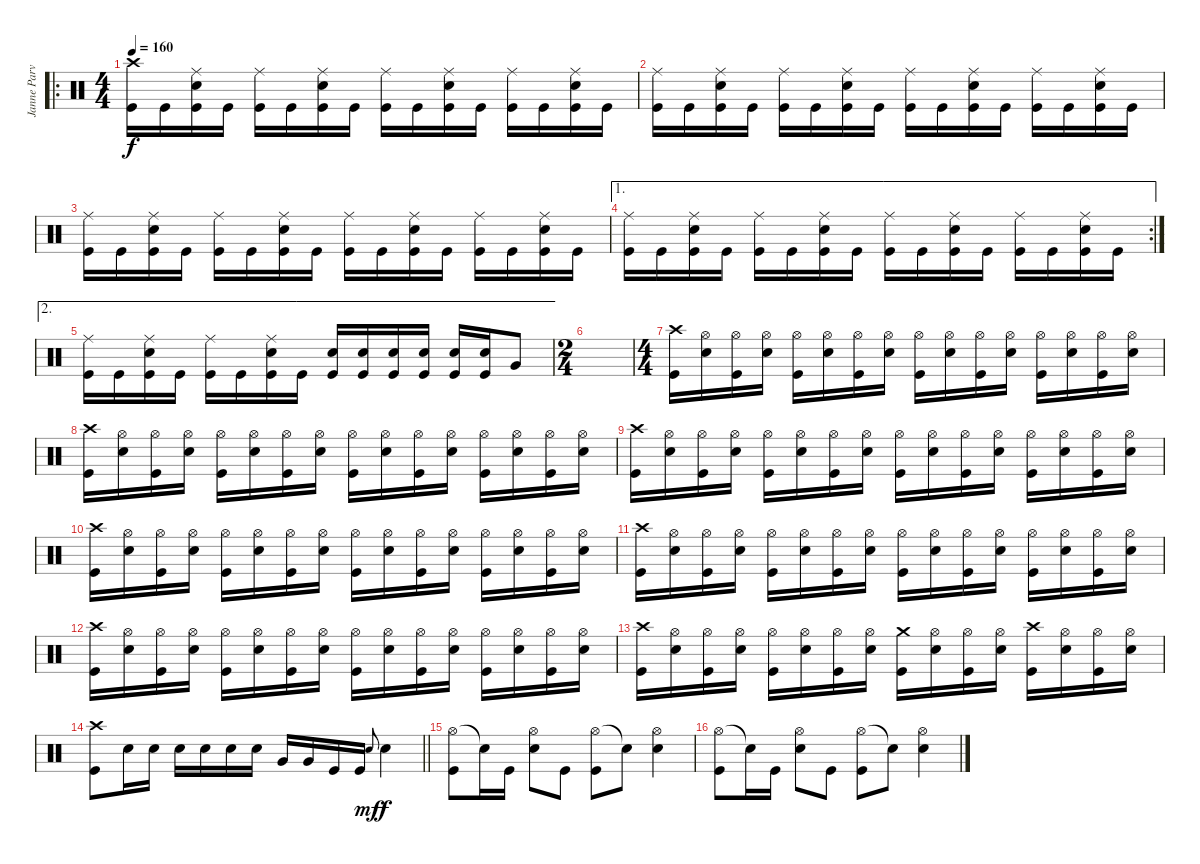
\track ("Janne Parviainen" "Janne Parv") {instrument percussion}
\staff {score}
\articulation defaults
\ro
\ts (4 4)
\tempo 160
\clef neutral
\ks c
("Crash high (hit)" "Kick (hit)").16{dy f} "Kick (hit)".16 ("Ride (middle)" "Electric Snare (hit)" "Kick (hit)").16 "Kick (hit)".16 ("Ride (middle)" "Kick (hit)").16 "Kick (hit)".16 ("Ride (middle)" "Electric Snare (hit)" "Kick (hit)").16 "Kick (hit)".16 ("Ride (middle)" "Kick (hit)").16 "Kick (hit)".16 ("Ride (middle)" "Electric Snare (hit)" "Kick (hit)").16 "Kick (hit)".16 ("Ride (middle)" "Kick (hit)").16 "Kick (hit)".16 ("Ride (middle)" "Electric Snare (hit)" "Kick (hit)").16 "Kick (hit)".16 |
("Ride (middle)" "Kick (hit)").16 "Kick (hit)".16 ("Ride (middle)" "Electric Snare (hit)" "Kick (hit)").16 "Kick (hit)".16 ("Ride (middle)" "Kick (hit)").16 "Kick (hit)".16 ("Ride (middle)" "Electric Snare (hit)" "Kick (hit)").16 "Kick (hit)".16 ("Ride (middle)" "Kick (hit)").16 "Kick (hit)".16 ("Ride (middle)" "Electric Snare (hit)" "Kick (hit)").16 "Kick (hit)".16 ("Ride (middle)" "Kick (hit)").16 "Kick (hit)".16 ("Ride (middle)" "Electric Snare (hit)" "Kick (hit)").16 "Kick (hit)".16 |
("Ride (middle)" "Kick (hit)").16 "Kick (hit)".16 ("Ride (middle)" "Electric Snare (hit)" "Kick (hit)").16 "Kick (hit)".16 ("Ride (middle)" "Kick (hit)").16 "Kick (hit)".16 ("Ride (middle)" "Electric Snare (hit)" "Kick (hit)").16 "Kick (hit)".16 ("Ride (middle)" "Kick (hit)").16 "Kick (hit)".16 ("Ride (middle)" "Electric Snare (hit)" "Kick (hit)").16 "Kick (hit)".16 ("Ride (middle)" "Kick (hit)").16 "Kick (hit)".16 ("Ride (middle)" "Electric Snare (hit)" "Kick (hit)").16 "Kick (hit)".16 |
\ae 1
\rc 2
("Ride (middle)" "Kick (hit)").16 "Kick (hit)".16 ("Ride (middle)" "Electric Snare (hit)" "Kick (hit)").16 "Kick (hit)".16 ("Ride (middle)" "Kick (hit)").16 "Kick (hit)".16 ("Ride (middle)" "Electric Snare (hit)" "Kick (hit)").16 "Kick (hit)".16 ("Ride (middle)" "Kick (hit)").16 "Kick (hit)".16 ("Ride (middle)" "Electric Snare (hit)" "Kick (hit)").16 "Kick (hit)".16 ("Ride (middle)" "Kick (hit)").16 "Kick (hit)".16 ("Ride (middle)" "Electric Snare (hit)" "Kick (hit)").16 "Kick (hit)".16 |
\ae 2
("Ride (middle)" "Kick (hit)").16 "Kick (hit)".16 ("Ride (middle)" "Electric Snare (hit)" "Kick (hit)").16 "Kick (hit)".16 ("Ride (middle)" "Kick (hit)").16 "Kick (hit)".16 ("Ride (middle)" "Electric Snare (hit)" "Kick (hit)").16 "Kick (hit)".16 ("Electric Snare (hit)" "Kick (hit)").16 ("Electric Snare (hit)" "Kick (hit)").16 ("Electric Snare (hit)" "Kick (hit)").16 ("Electric Snare (hit)" "Kick (hit)").16 ("Electric Snare (hit)" "Kick (hit)").16 ("Electric Snare (hit)" "Kick (hit)").16 "Very Low Tom (hit)".8 |
\ts (2 4)
|
\ts (4 4)
("Crash high (hit)" "Kick (hit)").16 ("Hi-Hat (open)" "Electric Snare (hit)").16 ("Hi-Hat (open)" "Kick (hit)").16 ("Hi-Hat (open)" "Electric Snare (hit)").16 ("Hi-Hat (open)" "Kick (hit)").16 ("Hi-Hat (open)" "Electric Snare (hit)").16 ("Hi-Hat (open)" "Kick (hit)").16 ("Hi-Hat (open)" "Electric Snare (hit)").16 ("Hi-Hat (open)" "Kick (hit)").16 ("Hi-Hat (open)" "Electric Snare (hit)").16 ("Hi-Hat (open)" "Kick (hit)").16 ("Hi-Hat (open)" "Electric Snare (hit)").16 ("Hi-Hat (open)" "Kick (hit)").16 ("Hi-Hat (open)" "Electric Snare (hit)").16 ("Hi-Hat (open)" "Kick (hit)").16 ("Hi-Hat (open)" "Electric Snare (hit)").16 |
("Crash high (hit)" "Kick (hit)").16 ("Hi-Hat (open)" "Electric Snare (hit)").16 ("Hi-Hat (open)" "Kick (hit)").16 ("Hi-Hat (open)" "Electric Snare (hit)").16 ("Hi-Hat (open)" "Kick (hit)").16 ("Hi-Hat (open)" "Electric Snare (hit)").16 ("Hi-Hat (open)" "Kick (hit)").16 ("Hi-Hat (open)" "Electric Snare (hit)").16 ("Hi-Hat (open)" "Kick (hit)").16 ("Hi-Hat (open)" "Electric Snare (hit)").16 ("Hi-Hat (open)" "Kick (hit)").16 ("Hi-Hat (open)" "Electric Snare (hit)").16 ("Hi-Hat (open)" "Kick (hit)").16 ("Hi-Hat (open)" "Electric Snare (hit)").16 ("Hi-Hat (open)" "Kick (hit)").16 ("Hi-Hat (open)" "Electric Snare (hit)").16 |
("Crash high (hit)" "Kick (hit)").16 ("Hi-Hat (open)" "Electric Snare (hit)").16 ("Hi-Hat (open)" "Kick (hit)").16 ("Hi-Hat (open)" "Electric Snare (hit)").16 ("Hi-Hat (open)" "Kick (hit)").16 ("Hi-Hat (open)" "Electric Snare (hit)").16 ("Hi-Hat (open)" "Kick (hit)").16 ("Hi-Hat (open)" "Electric Snare (hit)").16 ("Hi-Hat (open)" "Kick (hit)").16 ("Hi-Hat (open)" "Electric Snare (hit)").16 ("Hi-Hat (open)" "Kick (hit)").16 ("Hi-Hat (open)" "Electric Snare (hit)").16 ("Hi-Hat (open)" "Kick (hit)").16 ("Hi-Hat (open)" "Electric Snare (hit)").16 ("Hi-Hat (open)" "Kick (hit)").16 ("Hi-Hat (open)" "Electric Snare (hit)").16 |
("Crash high (hit)" "Kick (hit)").16 ("Hi-Hat (open)" "Electric Snare (hit)").16 ("Hi-Hat (open)" "Kick (hit)").16 ("Hi-Hat (open)" "Electric Snare (hit)").16 ("Hi-Hat (open)" "Kick (hit)").16 ("Hi-Hat (open)" "Electric Snare (hit)").16 ("Hi-Hat (open)" "Kick (hit)").16 ("Hi-Hat (open)" "Electric Snare (hit)").16 ("Hi-Hat (open)" "Kick (hit)").16 ("Hi-Hat (open)" "Electric Snare (hit)").16 ("Hi-Hat (open)" "Kick (hit)").16 ("Hi-Hat (open)" "Electric Snare (hit)").16 ("Hi-Hat (open)" "Kick (hit)").16 ("Hi-Hat (open)" "Electric Snare (hit)").16 ("Hi-Hat (open)" "Kick (hit)").16 ("Hi-Hat (open)" "Electric Snare (hit)").16 |
("Crash high (hit)" "Kick (hit)").16 ("Hi-Hat (open)" "Electric Snare (hit)").16 ("Hi-Hat (open)" "Kick (hit)").16 ("Hi-Hat (open)" "Electric Snare (hit)").16 ("Hi-Hat (open)" "Kick (hit)").16 ("Hi-Hat (open)" "Electric Snare (hit)").16 ("Hi-Hat (open)" "Kick (hit)").16 ("Hi-Hat (open)" "Electric Snare (hit)").16 ("Hi-Hat (open)" "Kick (hit)").16 ("Hi-Hat (open)" "Electric Snare (hit)").16 ("Hi-Hat (open)" "Kick (hit)").16 ("Hi-Hat (open)" "Electric Snare (hit)").16 ("Hi-Hat (open)" "Kick (hit)").16 ("Hi-Hat (open)" "Electric Snare (hit)").16 ("Hi-Hat (open)" "Kick (hit)").16 ("Hi-Hat (open)" "Electric Snare (hit)").16 |
("Crash high (hit)" "Kick (hit)").16 ("Hi-Hat (open)" "Electric Snare (hit)").16 ("Hi-Hat (open)" "Kick (hit)").16 ("Hi-Hat (open)" "Electric Snare (hit)").16 ("Hi-Hat (open)" "Kick (hit)").16 ("Hi-Hat (open)" "Electric Snare (hit)").16 ("Hi-Hat (open)" "Kick (hit)").16 ("Hi-Hat (open)" "Electric Snare (hit)").16 ("Hi-Hat (open)" "Kick (hit)").16 ("Hi-Hat (open)" "Electric Snare (hit)").16 ("Hi-Hat (open)" "Kick (hit)").16 ("Hi-Hat (open)" "Electric Snare (hit)").16 ("Hi-Hat (open)" "Kick (hit)").16 ("Hi-Hat (open)" "Electric Snare (hit)").16 ("Hi-Hat (open)" "Kick (hit)").16 ("Hi-Hat (open)" "Electric Snare (hit)").16 |
("Crash high (hit)" "Kick (hit)").16 ("Hi-Hat (open)" "Electric Snare (hit)").16 ("Hi-Hat (open)" "Kick (hit)").16 ("Hi-Hat (open)" "Electric Snare (hit)").16 ("Hi-Hat (open)" "Kick (hit)").16 ("Hi-Hat (open)" "Electric Snare (hit)").16 ("Hi-Hat (open)" "Kick (hit)").16 ("Hi-Hat (open)" "Electric Snare (hit)").16 ("Crash medium (hit)" "Kick (hit)").16 ("Hi-Hat (open)" "Electric Snare (hit)").16 ("Hi-Hat (open)" "Kick (hit)").16 ("Hi-Hat (open)" "Electric Snare (hit)").16 ("Crash high (hit)" "Kick (hit)").16 ("Hi-Hat (open)" "Electric Snare (hit)").16 ("Hi-Hat (open)" "Kick (hit)").16 ("Hi-Hat (open)" "Electric Snare (hit)").16 |
\barLineRight lightlight
("Crash high (hit)" "Kick (hit)").8 "Electric Snare (hit)".16 "Electric Snare (hit)".16 "Electric Snare (hit)".16 "Electric Snare (hit)".16 "Electric Snare (hit)".16 "Electric Snare (hit)".16 "Very Low Tom (hit)".16 "Very Low Tom (hit)".16 "Kick (hit)".16 "Kick (hit)".16 "Electric Snare (hit)".8{gr onbeat dy mf} "Electric Snare (hit)".4{dy f} |
("Hi-Hat (open)" "Kick (hit)").8 "Snare (hit)"{t}.16 "Kick (hit)".16 ("Hi-Hat (open)" "Electric Snare (hit)").8 "Kick (hit)".8 ("Hi-Hat (open)" "Kick (hit)").8 "Snare (hit)"{t}.8 ("Hi-Hat (open)" "Electric Snare (hit)").4 |
("Hi-Hat (open)" "Kick (hit)").8 "Snare (hit)"{t}.16 "Kick (hit)".16 ("Hi-Hat (open)" "Electric Snare (hit)").8 "Kick (hit)".8 ("Hi-Hat (open)" "Kick (hit)").8 "Snare (hit)"{t}.8 ("Hi-Hat (open)" "Electric Snare (hit)").4
